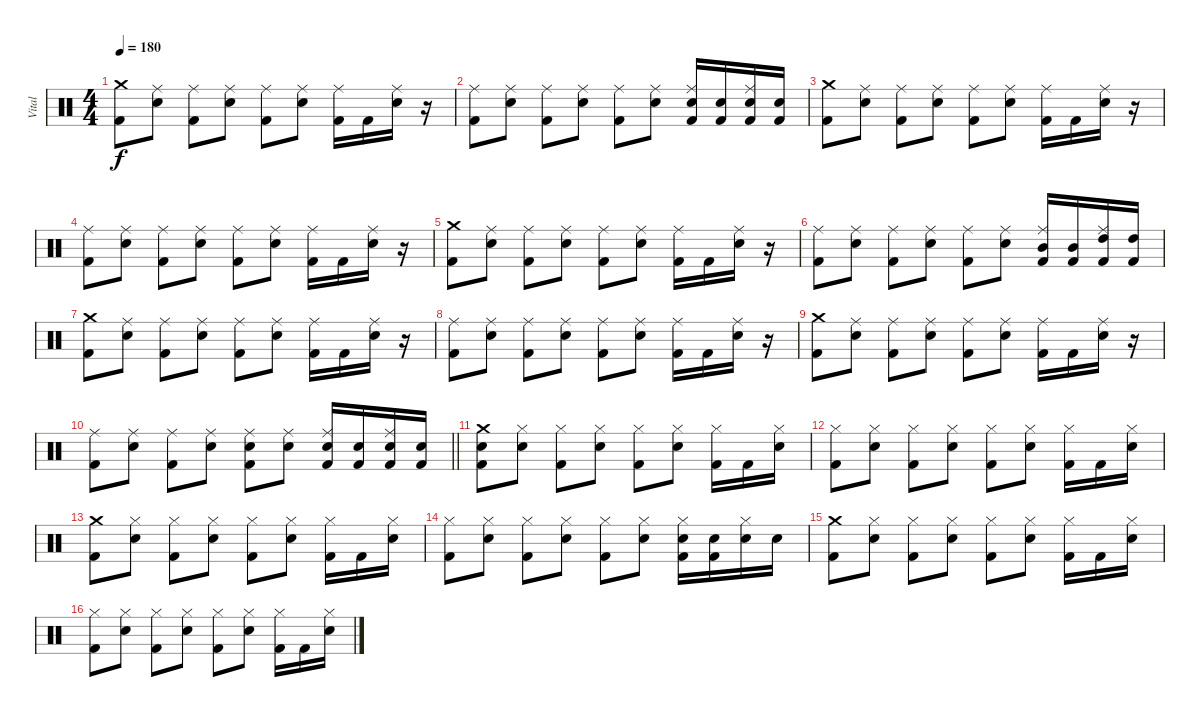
\track ("Vital" "Vital") {instrument percussion}
\staff {score}
\articulation defaults
\ts (4 4)
\tempo 180
\clef neutral
\ks c
("Crash medium (hit)" "Kick (hit) 2").8{dy f} ("Ride (middle)" "Snare (hit) 2").8 ("Ride (middle)" "Kick (hit) 2").8 ("Ride (middle)" "Snare (hit) 2").8 ("Ride (middle)" "Kick (hit) 2").8 ("Ride (middle)" "Snare (hit) 2").8 ("Ride (middle)" "Kick (hit) 2").16 "Kick (hit) 2".16 ("Ride (middle)" "Snare (hit) 2").16 r.16 |
("Ride (middle)" "Kick (hit) 2").8 ("Ride (middle)" "Snare (hit) 2").8 ("Ride (middle)" "Kick (hit) 2").8 ("Ride (middle)" "Snare (hit) 2").8 ("Ride (middle)" "Kick (hit) 2").8 ("Ride (middle)" "Snare (hit) 2").8 ("Ride (middle)" "Snare (hit) 2" "Kick (hit) 2").16 ("Snare (hit) 2" "Kick (hit) 2").16 ("Ride (middle)" "Snare (hit) 2" "Kick (hit) 2").16 ("Snare (hit) 2" "Kick (hit) 2").16 |
("Crash medium (hit)" "Kick (hit) 2").8 ("Ride (middle)" "Snare (hit) 2").8 ("Ride (middle)" "Kick (hit) 2").8 ("Ride (middle)" "Snare (hit) 2").8 ("Ride (middle)" "Kick (hit) 2").8 ("Ride (middle)" "Snare (hit) 2").8 ("Ride (middle)" "Kick (hit) 2").16 "Kick (hit) 2".16 ("Ride (middle)" "Snare (hit) 2").16 r.16 |
("Ride (middle)" "Kick (hit) 2").8 ("Ride (middle)" "Snare (hit) 2").8 ("Ride (middle)" "Kick (hit) 2").8 ("Ride (middle)" "Snare (hit) 2").8 ("Ride (middle)" "Kick (hit) 2").8 ("Ride (middle)" "Snare (hit) 2").8 ("Ride (middle)" "Kick (hit) 2").16 "Kick (hit) 2".16 ("Ride (middle)" "Snare (hit) 2").16 r.16 |
("Crash medium (hit)" "Kick (hit) 2").8 ("Ride (middle)" "Snare (hit) 2").8 ("Ride (middle)" "Kick (hit) 2").8 ("Ride (middle)" "Snare (hit) 2").8 ("Ride (middle)" "Kick (hit) 2").8 ("Ride (middle)" "Snare (hit) 2").8 ("Ride (middle)" "Kick (hit) 2").16 "Kick (hit) 2".16 ("Ride (middle)" "Snare (hit) 2").16 r.16 |
("Ride (middle)" "Kick (hit) 2").8 ("Ride (middle)" "Snare (hit) 2").8 ("Ride (middle)" "Kick (hit) 2").8 ("Ride (middle)" "Snare (hit) 2").8 ("Ride (middle)" "Kick (hit) 2").8 ("Ride (middle)" "Snare (hit) 2").8 ("Ride (middle)" "Mid Tom (hit)" "Kick (hit) 2").16 ("Mid Tom (hit)" "Kick (hit) 2").16 ("Ride (middle)" "High Tom (hit)" "Kick (hit) 2").16 ("High Tom (hit)" "Kick (hit) 2").16 |
("Crash medium (hit)" "Kick (hit) 2").8 ("Ride (middle)" "Snare (hit) 2").8 ("Ride (middle)" "Kick (hit) 2").8 ("Ride (middle)" "Snare (hit) 2").8 ("Ride (middle)" "Kick (hit) 2").8 ("Ride (middle)" "Snare (hit) 2").8 ("Ride (middle)" "Kick (hit) 2").16 "Kick (hit) 2".16 ("Ride (middle)" "Snare (hit) 2").16 r.16 |
("Ride (middle)" "Kick (hit) 2").8 ("Ride (middle)" "Snare (hit) 2").8 ("Ride (middle)" "Kick (hit) 2").8 ("Ride (middle)" "Snare (hit) 2").8 ("Ride (middle)" "Kick (hit) 2").8 ("Ride (middle)" "Snare (hit) 2").8 ("Ride (middle)" "Kick (hit) 2").16 "Kick (hit) 2".16 ("Ride (middle)" "Snare (hit) 2").16 r.16 |
("Crash medium (hit)" "Kick (hit) 2").8 ("Ride (middle)" "Snare (hit) 2").8 ("Ride (middle)" "Kick (hit) 2").8 ("Ride (middle)" "Snare (hit) 2").8 ("Ride (middle)" "Kick (hit) 2").8 ("Ride (middle)" "Snare (hit) 2").8 ("Ride (middle)" "Kick (hit) 2").16 "Kick (hit) 2".16 ("Ride (middle)" "Snare (hit) 2").16 r.16 |
\barLineRight lightlight
("Ride (middle)" "Kick (hit) 2").8 ("Ride (middle)" "Snare (hit) 2").8 ("Ride (middle)" "Kick (hit) 2").8 ("Ride (middle)" "Snare (hit) 2").8 ("Ride (middle)" "Snare (hit) 2" "Kick (hit) 2").8 ("Ride (middle)" "Snare (hit) 2").8 ("Ride (middle)" "Snare (hit) 2" "Kick (hit) 2").16 ("Snare (hit) 2" "Kick (hit) 2").16 ("Ride (middle)" "Snare (hit) 2" "Kick (hit) 2").16 ("Snare (hit) 2" "Kick (hit) 2").16 |
("Crash medium (hit)" "Snare (hit) 2" "Kick (hit) 2").8 ("Hi-Hat (closed)" "Snare (hit) 2").8 ("Hi-Hat (closed)" "Kick (hit) 2").8 ("Hi-Hat (closed)" "Snare (hit) 2").8 ("Hi-Hat (closed)" "Kick (hit) 2").8 ("Hi-Hat (closed)" "Snare (hit) 2").8 ("Hi-Hat (closed)" "Kick (hit) 2").16 "Kick (hit) 2".16 ("Hi-Hat (closed)" "Snare (hit) 2").16 |
("Hi-Hat (closed)" "Kick (hit) 2").8 ("Hi-Hat (closed)" "Snare (hit) 2").8 ("Hi-Hat (closed)" "Kick (hit) 2").8 ("Hi-Hat (closed)" "Snare (hit) 2").8 ("Hi-Hat (closed)" "Kick (hit) 2").8 ("Hi-Hat (closed)" "Snare (hit) 2").8 ("Hi-Hat (closed)" "Kick (hit) 2").16 "Kick (hit) 2".16 ("Hi-Hat (closed)" "Snare (hit) 2").16 |
("Crash medium (hit)" "Kick (hit) 2").8 ("Hi-Hat (closed)" "Snare (hit) 2").8 ("Hi-Hat (closed)" "Kick (hit) 2").8 ("Hi-Hat (closed)" "Snare (hit) 2").8 ("Hi-Hat (closed)" "Kick (hit) 2").8 ("Hi-Hat (closed)" "Snare (hit) 2").8 ("Hi-Hat (closed)" "Kick (hit) 2").16 "Kick (hit) 2".16 ("Hi-Hat (closed)" "Snare (hit) 2").16 |
("Hi-Hat (closed)" "Kick (hit) 2").8 ("Hi-Hat (closed)" "Snare (hit) 2").8 ("Hi-Hat (closed)" "Kick (hit) 2").8 ("Hi-Hat (closed)" "Snare (hit) 2").8 ("Hi-Hat (closed)" "Kick (hit) 2").8 ("Hi-Hat (closed)" "Snare (hit) 2").8 ("Hi-Hat (closed)" "Snare (hit) 2" "Kick (hit) 2").16 ("Snare (hit) 2" "Kick (hit) 2").16 ("Hi-Hat (closed)" "Snare (hit) 2").16 "Snare (hit) 2".16 |
("Crash medium (hit)" "Kick (hit) 2").8 ("Hi-Hat (closed)" "Snare (hit) 2").8 ("Hi-Hat (closed)" "Kick (hit) 2").8 ("Hi-Hat (closed)" "Snare (hit) 2").8 ("Hi-Hat (closed)" "Kick (hit) 2").8 ("Hi-Hat (closed)" "Snare (hit) 2").8 ("Hi-Hat (closed)" "Kick (hit) 2").16 "Kick (hit) 2".16 ("Hi-Hat (closed)" "Snare (hit) 2").16 |
("Hi-Hat (closed)" "Kick (hit) 2").8 ("Hi-Hat (closed)" "Snare (hit) 2").8 ("Hi-Hat (closed)" "Kick (hit) 2").8 ("Hi-Hat (closed)" "Snare (hit) 2").8 ("Hi-Hat (closed)" "Kick (hit) 2").8 ("Hi-Hat (closed)" "Snare (hit) 2").8 ("Hi-Hat (closed)" "Kick (hit) 2").16 "Kick (hit) 2".16 ("Hi-Hat (closed)" "Snare (hit) 2").16
